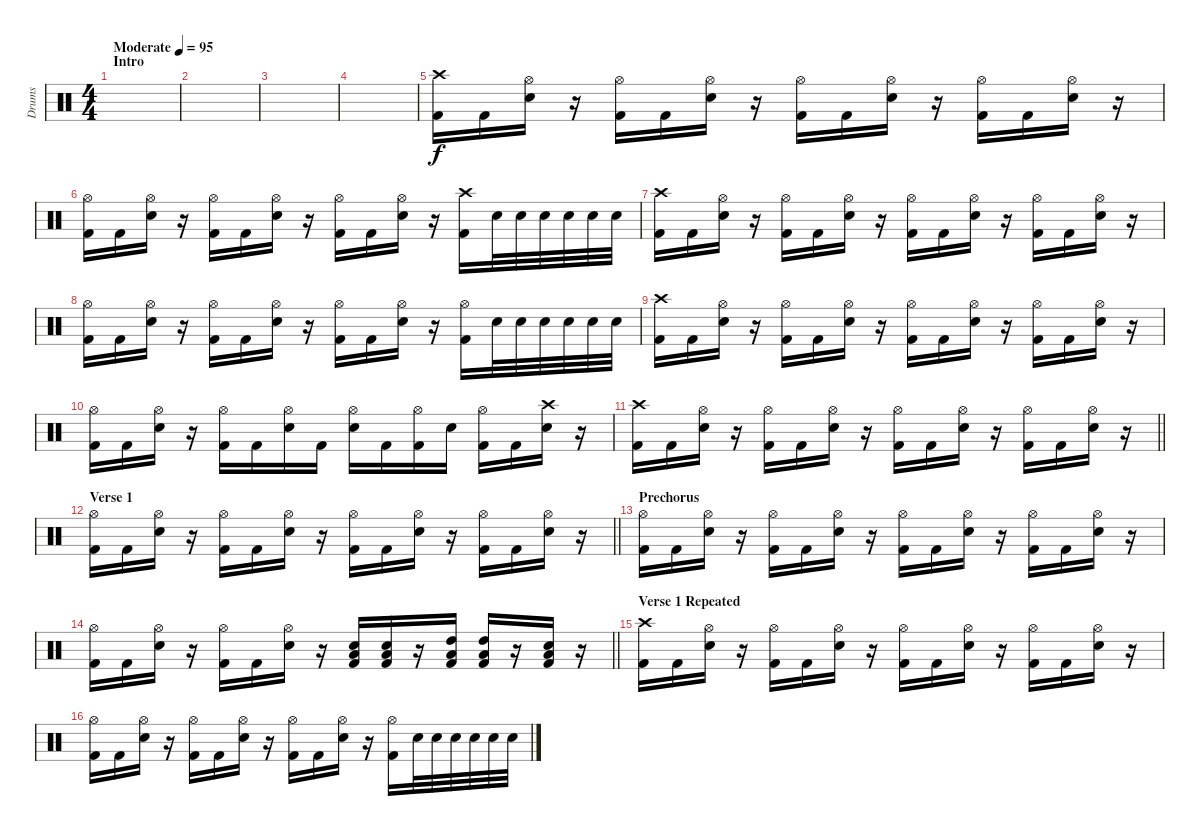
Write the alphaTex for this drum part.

\track ("Drums" "Drums") {instrument percussion}
\staff {score}
\articulation defaults
\ts (4 4)
\section ("" "Intro")
\tempo (95 "Moderate")
\clef neutral
\ks c
|
|
|
|
("Crash high (hit)" "Kick (hit) 2").16 "Kick (hit) 2".16 ("Hi-Hat (open)" "Electric Snare (hit)").16 r.16 ("Hi-Hat (open)" "Kick (hit) 2").16 "Kick (hit) 2".16 ("Hi-Hat (open)" "Electric Snare (hit)").16 r.16 ("Hi-Hat (open)" "Kick (hit) 2").16 "Kick (hit) 2".16 ("Hi-Hat (open)" "Electric Snare (hit)").16 r.16 ("Hi-Hat (open)" "Kick (hit) 2").16 "Kick (hit) 2".16 ("Hi-Hat (open)" "Electric Snare (hit)").16 r.16 |
("Hi-Hat (open)" "Kick (hit) 2").16 "Kick (hit) 2".16 ("Hi-Hat (open)" "Electric Snare (hit)").16 r.16 ("Hi-Hat (open)" "Kick (hit) 2").16 "Kick (hit) 2".16 ("Hi-Hat (open)" "Electric Snare (hit)").16 r.16 ("Hi-Hat (open)" "Kick (hit) 2").16 "Kick (hit) 2".16 ("Hi-Hat (open)" "Electric Snare (hit)").16 r.16 ("Crash high (hit)" "Kick (hit) 2").16 "Electric Snare (hit)".32 "Electric Snare (hit)".32 "Electric Snare (hit)".32 "Electric Snare (hit)".32 "Electric Snare (hit)".32 "Electric Snare (hit)".32 |
("Crash high (hit)" "Kick (hit) 2").16 "Kick (hit) 2".16 ("Hi-Hat (open)" "Electric Snare (hit)").16 r.16 ("Hi-Hat (open)" "Kick (hit) 2").16 "Kick (hit) 2".16 ("Hi-Hat (open)" "Electric Snare (hit)").16 r.16 ("Hi-Hat (open)" "Kick (hit) 2").16 "Kick (hit) 2".16 ("Hi-Hat (open)" "Electric Snare (hit)").16 r.16 ("Hi-Hat (open)" "Kick (hit) 2").16 "Kick (hit) 2".16 ("Hi-Hat (open)" "Electric Snare (hit)").16 r.16 |
("Hi-Hat (open)" "Kick (hit) 2").16 "Kick (hit) 2".16 ("Hi-Hat (open)" "Electric Snare (hit)").16 r.16 ("Hi-Hat (open)" "Kick (hit) 2").16 "Kick (hit) 2".16 ("Hi-Hat (open)" "Electric Snare (hit)").16 r.16 ("Hi-Hat (open)" "Kick (hit) 2").16 "Kick (hit) 2".16 ("Hi-Hat (open)" "Electric Snare (hit)").16 r.16 ("Hi-Hat (open)" "Kick (hit) 2").16 "Electric Snare (hit)".32 "Electric Snare (hit)".32 "Electric Snare (hit)".32 "Electric Snare (hit)".32 "Electric Snare (hit)".32 "Electric Snare (hit)".32 |
("Crash high (hit)" "Kick (hit) 2").16 "Kick (hit) 2".16 ("Hi-Hat (open)" "Electric Snare (hit)").16 r.16 ("Hi-Hat (open)" "Kick (hit) 2").16 "Kick (hit) 2".16 ("Hi-Hat (open)" "Electric Snare (hit)").16 r.16 ("Hi-Hat (open)" "Kick (hit) 2").16 "Kick (hit) 2".16 ("Hi-Hat (open)" "Electric Snare (hit)").16 r.16 ("Hi-Hat (open)" "Kick (hit) 2").16 "Kick (hit) 2".16 ("Hi-Hat (open)" "Electric Snare (hit)").16 r.16 |
("Hi-Hat (open)" "Kick (hit) 2").16 "Kick (hit) 2".16 ("Hi-Hat (open)" "Electric Snare (hit)").16 r.16 ("Hi-Hat (open)" "Kick (hit) 2").16 "Kick (hit) 2".16 ("Hi-Hat (open)" "Electric Snare (hit)").16 "Kick (hit) 2".16 ("Hi-Hat (open)" "Electric Snare (hit)").16 "Kick (hit) 2".16 ("Hi-Hat (open)" "Kick (hit) 2").16 "Electric Snare (hit)".16 ("Hi-Hat (open)" "Kick (hit) 2").16 "Kick (hit) 2".16 ("Crash high (hit)" "Electric Snare (hit)").16 r.16 |
\barLineRight lightlight
("Crash high (hit)" "Kick (hit) 2").16 "Kick (hit) 2".16 ("Hi-Hat (open)" "Electric Snare (hit)").16 r.16 ("Hi-Hat (open)" "Kick (hit) 2").16 "Kick (hit) 2".16 ("Hi-Hat (open)" "Electric Snare (hit)").16 r.16 ("Hi-Hat (open)" "Kick (hit) 2").16 "Kick (hit) 2".16 ("Hi-Hat (open)" "Electric Snare (hit)").16 r.16 ("Hi-Hat (open)" "Kick (hit) 2").16 "Kick (hit) 2".16 ("Hi-Hat (open)" "Electric Snare (hit)").16 r.16 |
\section ("" "Verse 1")
\barLineRight lightlight
("Hi-Hat (open)" "Kick (hit) 2").16 "Kick (hit) 2".16 ("Hi-Hat (open)" "Electric Snare (hit)").16 r.16 ("Hi-Hat (open)" "Kick (hit) 2").16 "Kick (hit) 2".16 ("Hi-Hat (open)" "Electric Snare (hit)").16 r.16 ("Hi-Hat (open)" "Kick (hit) 2").16 "Kick (hit) 2".16 ("Hi-Hat (open)" "Electric Snare (hit)").16 r.16 ("Hi-Hat (open)" "Kick (hit) 2").16 "Kick (hit) 2".16 ("Hi-Hat (open)" "Electric Snare (hit)").16 r.16 |
\section ("" "Prechorus")
("Hi-Hat (open)" "Kick (hit) 2").16 "Kick (hit) 2".16 ("Hi-Hat (open)" "Electric Snare (hit)").16 r.16 ("Hi-Hat (open)" "Kick (hit) 2").16 "Kick (hit) 2".16 ("Hi-Hat (open)" "Electric Snare (hit)").16 r.16 ("Hi-Hat (open)" "Kick (hit) 2").16 "Kick (hit) 2".16 ("Hi-Hat (open)" "Electric Snare (hit)").16 r.16 ("Hi-Hat (open)" "Kick (hit) 2").16 "Kick (hit) 2".16 ("Hi-Hat (open)" "Electric Snare (hit)").16 r.16 |
\barLineRight lightlight
("Hi-Hat (open)" "Kick (hit) 2").16 "Kick (hit) 2".16 ("Hi-Hat (open)" "Electric Snare (hit)").16 r.16 ("Hi-Hat (open)" "Kick (hit) 2").16 "Kick (hit) 2".16 ("Hi-Hat (open)" "Electric Snare (hit)").16 r.16 ("Electric Snare (hit)" "Low Tom (hit)" "Kick (hit) 2").16 ("Electric Snare (hit)" "Low Tom (hit)" "Kick (hit) 2").16 r.16 ("High Tom (hit)" "Low Tom (hit)" "Kick (hit) 2").16 ("High Tom (hit)" "Low Tom (hit)" "Kick (hit) 2").16 r.16 ("Electric Snare (hit)" "Low Tom (hit)" "Kick (hit) 2").16 r.16 |
\section ("" "Verse 1 Repeated")
("Crash high (hit)" "Kick (hit) 2").16 "Kick (hit) 2".16 ("Hi-Hat (open)" "Electric Snare (hit)").16 r.16 ("Hi-Hat (open)" "Kick (hit) 2").16 "Kick (hit) 2".16 ("Hi-Hat (open)" "Electric Snare (hit)").16 r.16 ("Hi-Hat (open)" "Kick (hit) 2").16 "Kick (hit) 2".16 ("Hi-Hat (open)" "Electric Snare (hit)").16 r.16 ("Hi-Hat (open)" "Kick (hit) 2").16 "Kick (hit) 2".16 ("Hi-Hat (open)" "Electric Snare (hit)").16 r.16 |
("Hi-Hat (open)" "Kick (hit) 2").16 "Kick (hit) 2".16 ("Hi-Hat (open)" "Electric Snare (hit)").16 r.16 ("Hi-Hat (open)" "Kick (hit) 2").16 "Kick (hit) 2".16 ("Hi-Hat (open)" "Electric Snare (hit)").16 r.16 ("Hi-Hat (open)" "Kick (hit) 2").16 "Kick (hit) 2".16 ("Hi-Hat (open)" "Electric Snare (hit)").16 r.16 ("Hi-Hat (open)" "Kick (hit) 2").16 "Electric Snare (hit)".32 "Electric Snare (hit)".32 "Electric Snare (hit)".32 "Electric Snare (hit)".32 "Electric Snare (hit)".32 "Electric Snare (hit)".32
